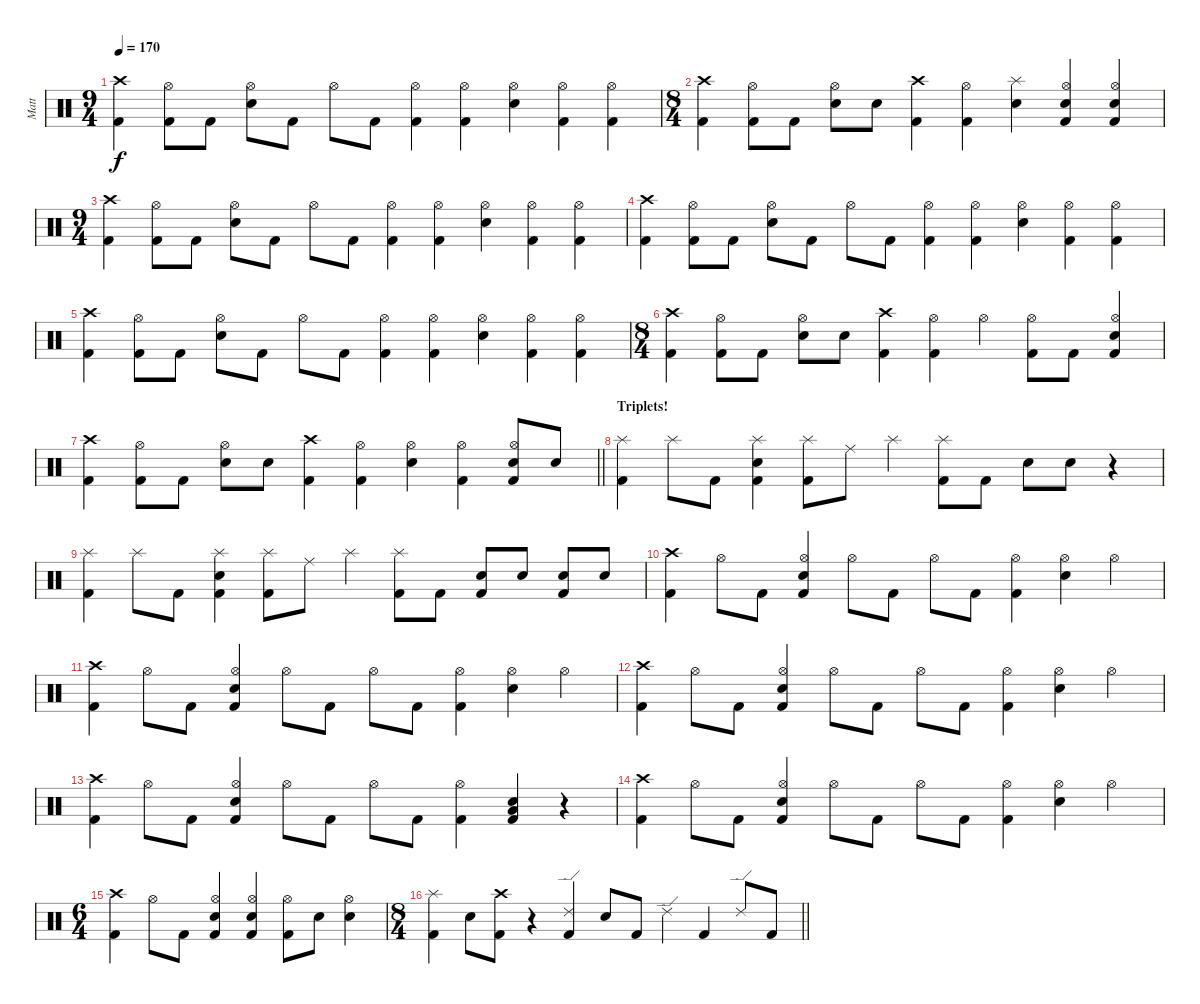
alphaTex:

\track ("Matt" "Matt") {instrument percussion}
\staff
\articulation defaults
\ts (9 4)
\tempo 170
\clef neutral
\ks c
("Crash high (hit)" "Kick (hit) 2").4{dy f} ("Hi-Hat (open)" "Kick (hit) 2").8 "Kick (hit) 2".8 ("Snare (hit) 2" "Hi-Hat (open)").8 "Kick (hit) 2".8 "Hi-Hat (open)".8 "Kick (hit) 2".8 ("Hi-Hat (open)" "Kick (hit) 2").4 ("Hi-Hat (open)" "Kick (hit) 2").4 ("Snare (hit) 2" "Hi-Hat (open)").4 ("Hi-Hat (open)" "Kick (hit) 2").4 ("Hi-Hat (open)" "Kick (hit) 2").4 |
\ts (8 4)
("Crash high (hit)" "Kick (hit) 2").4 ("Hi-Hat (open)" "Kick (hit) 2").8 "Kick (hit) 2".8 ("Snare (hit) 2" "Hi-Hat (open)").8 "Snare (hit) 2".8 ("Crash high (hit)" "Kick (hit) 2").4 ("Hi-Hat (open)" "Kick (hit) 2").4 ("Splash (hit)" "Snare (hit) 2").4 ("Snare (hit) 2" "Hi-Hat (open)" "Kick (hit) 2").4 ("Snare (hit) 2" "Hi-Hat (open)" "Kick (hit) 2").4 |
\ts (9 4)
("Crash high (hit)" "Kick (hit) 2").4 ("Hi-Hat (open)" "Kick (hit) 2").8 "Kick (hit) 2".8 ("Snare (hit) 2" "Hi-Hat (open)").8 "Kick (hit) 2".8 "Hi-Hat (open)".8 "Kick (hit) 2".8 ("Hi-Hat (open)" "Kick (hit) 2").4 ("Hi-Hat (open)" "Kick (hit) 2").4 ("Snare (hit) 2" "Hi-Hat (open)").4 ("Hi-Hat (open)" "Kick (hit) 2").4 ("Hi-Hat (open)" "Kick (hit) 2").4 |
("Crash high (hit)" "Kick (hit) 2").4 ("Hi-Hat (open)" "Kick (hit) 2").8 "Kick (hit) 2".8 ("Snare (hit) 2" "Hi-Hat (open)").8 "Kick (hit) 2".8 "Hi-Hat (open)".8 "Kick (hit) 2".8 ("Hi-Hat (open)" "Kick (hit) 2").4 ("Hi-Hat (open)" "Kick (hit) 2").4 ("Snare (hit) 2" "Hi-Hat (open)").4 ("Hi-Hat (open)" "Kick (hit) 2").4 ("Hi-Hat (open)" "Kick (hit) 2").4 |
("Crash high (hit)" "Kick (hit) 2").4 ("Hi-Hat (open)" "Kick (hit) 2").8 "Kick (hit) 2".8 ("Snare (hit) 2" "Hi-Hat (open)").8 "Kick (hit) 2".8 "Hi-Hat (open)".8 "Kick (hit) 2".8 ("Hi-Hat (open)" "Kick (hit) 2").4 ("Hi-Hat (open)" "Kick (hit) 2").4 ("Snare (hit) 2" "Hi-Hat (open)").4 ("Hi-Hat (open)" "Kick (hit) 2").4 ("Hi-Hat (open)" "Kick (hit) 2").4 |
\ts (8 4)
("Crash high (hit)" "Kick (hit) 2").4 ("Hi-Hat (open)" "Kick (hit) 2").8 "Kick (hit) 2".8 ("Snare (hit) 2" "Hi-Hat (open)").8 "Snare (hit) 2".8 ("Crash high (hit)" "Kick (hit) 2").4 ("Hi-Hat (open)" "Kick (hit) 2").4 "Hi-Hat (open)".4 ("Hi-Hat (open)" "Kick (hit) 2").8 "Kick (hit) 2".8 ("Snare (hit) 2" "Hi-Hat (open)" "Kick (hit) 2").4 |
\barLineRight lightlight
("Crash high (hit)" "Kick (hit) 2").4 ("Hi-Hat (open)" "Kick (hit) 2").8 "Kick (hit) 2".8 ("Snare (hit) 2" "Hi-Hat (open)").8 "Snare (hit) 2".8 ("Crash high (hit)" "Kick (hit) 2").4 ("Hi-Hat (open)" "Kick (hit) 2").4 ("Snare (hit) 2" "Hi-Hat (open)").4 ("Hi-Hat (open)" "Kick (hit) 2").4 ("Snare (hit) 2" "Hi-Hat (open)" "Kick (hit) 2").8 "Snare (hit) 2".8 |
\section ("" "Triplets!")
("Splash (hit)" "Kick (hit) 2").4 "Splash (hit)".8 "Kick (hit) 2".8 ("Snare (hit) 2" "Splash (hit)" "Kick (hit) 2").4 ("Splash (hit)" "Kick (hit) 2").8 "Ride (middle)".8 "Splash (hit)".4 ("Splash (hit)" "Kick (hit) 2").8 "Kick (hit) 2".8 "Snare (hit) 2".8 "Snare (hit) 2".8 r.4 |
("Splash (hit)" "Kick (hit) 2").4 "Splash (hit)".8 "Kick (hit) 2".8 ("Snare (hit) 2" "Splash (hit)" "Kick (hit) 2").4 ("Splash (hit)" "Kick (hit) 2").8 "Ride (middle)".8 "Splash (hit)".4 ("Splash (hit)" "Kick (hit) 2").8 "Kick (hit) 2".8 ("Snare (hit) 2" "Kick (hit) 2").8 "Snare (hit) 2".8 ("Snare (hit) 2" "Kick (hit) 2").8 "Snare (hit) 2".8 |
("Crash high (hit)" "Kick (hit) 2").4 "Hi-Hat (open)".8 "Kick (hit) 2".8 ("Snare (hit) 2" "Hi-Hat (open)" "Kick (hit) 2").4 "Hi-Hat (open)".8 "Kick (hit) 2".8 "Hi-Hat (open)".8 "Kick (hit) 2".8 ("Hi-Hat (open)" "Kick (hit) 2").4 ("Snare (hit) 2" "Hi-Hat (open)").4 "Hi-Hat (open)".4 |
("Crash high (hit)" "Kick (hit) 2").4 "Hi-Hat (open)".8 "Kick (hit) 2".8 ("Snare (hit) 2" "Hi-Hat (open)" "Kick (hit) 2").4 "Hi-Hat (open)".8 "Kick (hit) 2".8 "Hi-Hat (open)".8 "Kick (hit) 2".8 ("Hi-Hat (open)" "Kick (hit) 2").4 ("Snare (hit) 2" "Hi-Hat (open)").4 "Hi-Hat (open)".4 |
("Crash high (hit)" "Kick (hit) 2").4 "Hi-Hat (open)".8 "Kick (hit) 2".8 ("Snare (hit) 2" "Hi-Hat (open)" "Kick (hit) 2").4 "Hi-Hat (open)".8 "Kick (hit) 2".8 "Hi-Hat (open)".8 "Kick (hit) 2".8 ("Hi-Hat (open)" "Kick (hit) 2").4 ("Snare (hit) 2" "Hi-Hat (open)").4 "Hi-Hat (open)".4 |
("Crash high (hit)" "Kick (hit) 2").4 "Hi-Hat (open)".8 "Kick (hit) 2".8 ("Snare (hit) 2" "Hi-Hat (open)" "Kick (hit) 2").4 "Hi-Hat (open)".8 "Kick (hit) 2".8 "Hi-Hat (open)".8 "Kick (hit) 2".8 ("Hi-Hat (open)" "Kick (hit) 2").4 ("Low Floor Tom (hit)" "Snare (hit) 2" "Kick (hit) 2").4 r.4 |
("Crash high (hit)" "Kick (hit) 2").4 "Hi-Hat (open)".8 "Kick (hit) 2".8 ("Snare (hit) 2" "Hi-Hat (open)" "Kick (hit) 2").4 "Hi-Hat (open)".8 "Kick (hit) 2".8 "Hi-Hat (open)".8 "Kick (hit) 2".8 ("Hi-Hat (open)" "Kick (hit) 2").4 ("Snare (hit) 2" "Hi-Hat (open)").4 "Hi-Hat (open)".4 |
\ts (6 4)
("Crash high (hit)" "Kick (hit) 2").4 "Hi-Hat (open)".8 "Kick (hit) 2".8 ("Snare (hit) 2" "Hi-Hat (open)" "Kick (hit) 2").4 ("Snare (hit) 2" "Hi-Hat (open)" "Kick (hit) 2").4 ("Hi-Hat (open)" "Kick (hit) 2").8 "Snare (hit) 2".8 ("Snare (hit) 2" "Hi-Hat (open)").4 |
\ts (8 4)
\barLineRight lightlight
("Splash (hit)" "Kick (hit) 2").4 "Snare (hit) 2".8 ("Crash high (hit)" "Kick (hit) 2").8 r.4 ("Ride (edge) 2" "Kick (hit) 2").4 "Snare (hit) 2".8 "Kick (hit) 2".8 "Ride (edge) 2".4 "Kick (hit) 2".4 "Ride (edge) 2".8 "Kick (hit) 2".8
